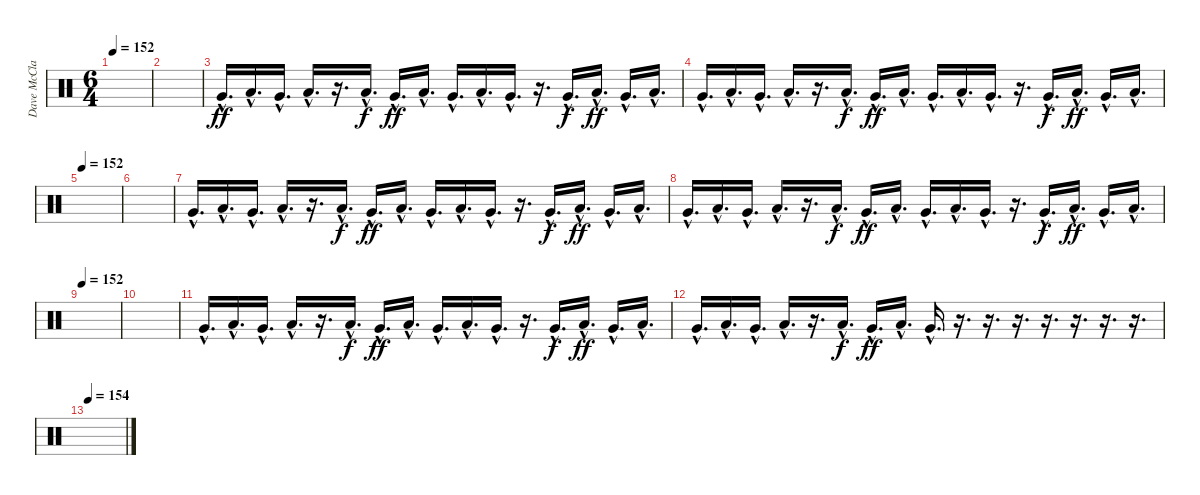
\track ("Dave McClain" "Dave McCla") {instrument percussion}
\staff {score}
\articulation defaults
\ts (6 4)
\tempo 152
\clef neutral
\ks c
|
|
"Very Low Tom (hit)"{hac}.16{d dy ff} "Low Tom (hit)"{hac}.16{d} "Very Low Tom (hit)"{hac}.16{d} "Low Tom (hit)"{hac}.16{d} r.16{d} "Low Tom (hit)"{hac}.16{d dy f} "Very Low Tom (hit)"{hac}.16{d dy ff} "Low Tom (hit)"{hac}.16{d} "Very Low Tom (hit)"{hac}.16{d} "Low Tom (hit)"{hac}.16{d} "Very Low Tom (hit)"{hac}.16{d} r.16{d} "Very Low Tom (hit)"{hac}.16{d dy f} "Low Tom (hit)"{hac}.16{d dy ff} "Very Low Tom (hit)"{hac}.16{d} "Low Tom (hit)"{hac}.16{d} |
"Very Low Tom (hit)"{hac}.16{d} "Low Tom (hit)"{hac}.16{d} "Very Low Tom (hit)"{hac}.16{d} "Low Tom (hit)"{hac}.16{d} r.16{d} "Low Tom (hit)"{hac}.16{d dy f} "Very Low Tom (hit)"{hac}.16{d dy ff} "Low Tom (hit)"{hac}.16{d} "Very Low Tom (hit)"{hac}.16{d} "Low Tom (hit)"{hac}.16{d} "Very Low Tom (hit)"{hac}.16{d} r.16{d} "Very Low Tom (hit)"{hac}.16{d dy f} "Low Tom (hit)"{hac}.16{d dy ff} "Very Low Tom (hit)"{hac}.16{d} "Low Tom (hit)"{hac}.16{d} |
\tempo 152
|
|
"Very Low Tom (hit)"{hac}.16{d} "Low Tom (hit)"{hac}.16{d} "Very Low Tom (hit)"{hac}.16{d} "Low Tom (hit)"{hac}.16{d} r.16{d} "Low Tom (hit)"{hac}.16{d dy f} "Very Low Tom (hit)"{hac}.16{d dy ff} "Low Tom (hit)"{hac}.16{d} "Very Low Tom (hit)"{hac}.16{d} "Low Tom (hit)"{hac}.16{d} "Very Low Tom (hit)"{hac}.16{d} r.16{d} "Very Low Tom (hit)"{hac}.16{d dy f} "Low Tom (hit)"{hac}.16{d dy ff} "Very Low Tom (hit)"{hac}.16{d} "Low Tom (hit)"{hac}.16{d} |
"Very Low Tom (hit)"{hac}.16{d} "Low Tom (hit)"{hac}.16{d} "Very Low Tom (hit)"{hac}.16{d} "Low Tom (hit)"{hac}.16{d} r.16{d} "Low Tom (hit)"{hac}.16{d dy f} "Very Low Tom (hit)"{hac}.16{d dy ff} "Low Tom (hit)"{hac}.16{d} "Very Low Tom (hit)"{hac}.16{d} "Low Tom (hit)"{hac}.16{d} "Very Low Tom (hit)"{hac}.16{d} r.16{d} "Very Low Tom (hit)"{hac}.16{d dy f} "Low Tom (hit)"{hac}.16{d dy ff} "Very Low Tom (hit)"{hac}.16{d} "Low Tom (hit)"{hac}.16{d} |
\tempo 156
\tempo 152
|
|
"Very Low Tom (hit)"{hac}.16{d} "Low Tom (hit)"{hac}.16{d} "Very Low Tom (hit)"{hac}.16{d} "Low Tom (hit)"{hac}.16{d} r.16{d} "Low Tom (hit)"{hac}.16{d dy f} "Very Low Tom (hit)"{hac}.16{d dy ff} "Low Tom (hit)"{hac}.16{d} "Very Low Tom (hit)"{hac}.16{d} "Low Tom (hit)"{hac}.16{d} "Very Low Tom (hit)"{hac}.16{d} r.16{d} "Very Low Tom (hit)"{hac}.16{d dy f} "Low Tom (hit)"{hac}.16{d dy ff} "Very Low Tom (hit)"{hac}.16{d} "Low Tom (hit)"{hac}.16{d} |
"Very Low Tom (hit)"{hac}.16{d} "Low Tom (hit)"{hac}.16{d} "Very Low Tom (hit)"{hac}.16{d} "Low Tom (hit)"{hac}.16{d} r.16{d} "Low Tom (hit)"{hac}.16{d dy f} "Very Low Tom (hit)"{hac}.16{d dy ff} "Low Tom (hit)"{hac}.16{d} "Very Low Tom (hit)"{hac}.16{d} r.16{d} r.16{d} r.16{d} r.16{d} r.16{d} r.16{d} r.16{d} |
\tempo 154
